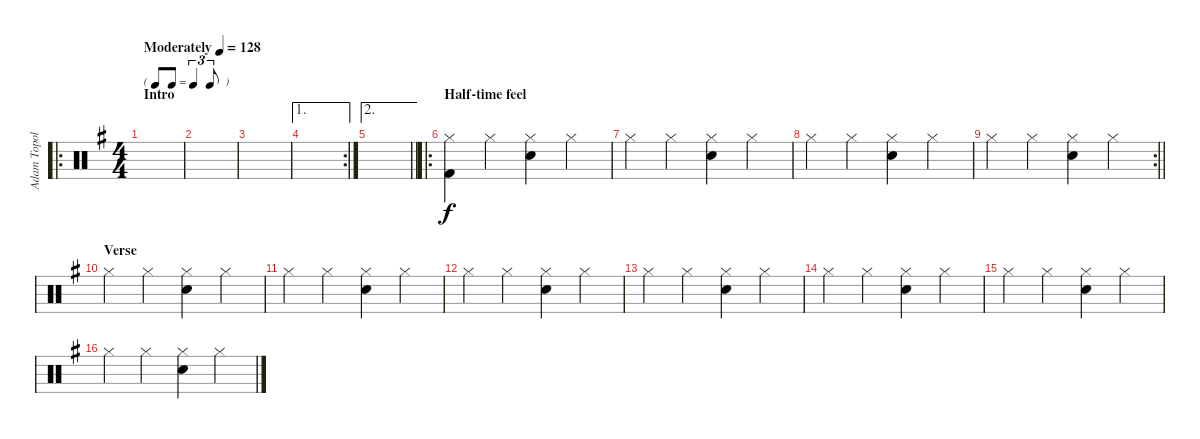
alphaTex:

\track ("Adam Topol" "Adam Topol") {instrument percussion}
\staff {score}
\articulation defaults
\ro
\ts (4 4)
\tf triplet8th
\section ("" "Intro")
\tempo (128 "Moderately")
\clef neutral
\ks g
|
|
|
\ae 1
\rc 2
|
\ae 2
\barLineRight lightlight
|
\ro
\section ("" "Half-time feel")
("Hi-Hat (closed)" "Kick (hit) 2").4 "Hi-Hat (closed)".4 ("Hi-Hat (closed)" "Snare (hit) 2").4 "Hi-Hat (closed)".4 |
"Hi-Hat (closed)".4 "Hi-Hat (closed)".4 ("Hi-Hat (closed)" "Snare (hit) 2").4 "Hi-Hat (closed)".4 |
"Hi-Hat (closed)".4 "Hi-Hat (closed)".4 ("Hi-Hat (closed)" "Snare (hit) 2").4 "Hi-Hat (closed)".4 |
\rc 2
\barLineRight lightlight "Hi-Hat (closed)".4 "Hi-Hat (closed)".4
("Hi-Hat (closed)" "Snare (hit) 2").4 "Hi-Hat (closed)".4 |
\section ("" "Verse")
"Hi-Hat (closed)".4 "Hi-Hat (closed)".4 ("Hi-Hat (closed)" "Snare (hit) 2").4 "Hi-Hat (closed)".4 |
"Hi-Hat (closed)".4 "Hi-Hat (closed)".4 ("Hi-Hat (closed)" "Snare (hit) 2").4 "Hi-Hat (closed)".4 |
"Hi-Hat (closed)".4 "Hi-Hat (closed)".4 ("Hi-Hat (closed)" "Snare (hit) 2").4 "Hi-Hat (closed)".4 |
"Hi-Hat (closed)".4 "Hi-Hat (closed)".4 ("Hi-Hat (closed)" "Snare (hit) 2").4 "Hi-Hat (closed)".4 |
"Hi-Hat (closed)".4 "Hi-Hat (closed)".4 ("Hi-Hat (closed)" "Snare (hit) 2").4 "Hi-Hat (closed)".4 |
"Hi-Hat (closed)".4 "Hi-Hat (closed)".4 ("Hi-Hat (closed)" "Snare (hit) 2").4 "Hi-Hat (closed)".4 |
"Hi-Hat (closed)".4 "Hi-Hat (closed)".4 ("Hi-Hat (closed)" "Snare (hit) 2").4 "Hi-Hat (closed)".4
